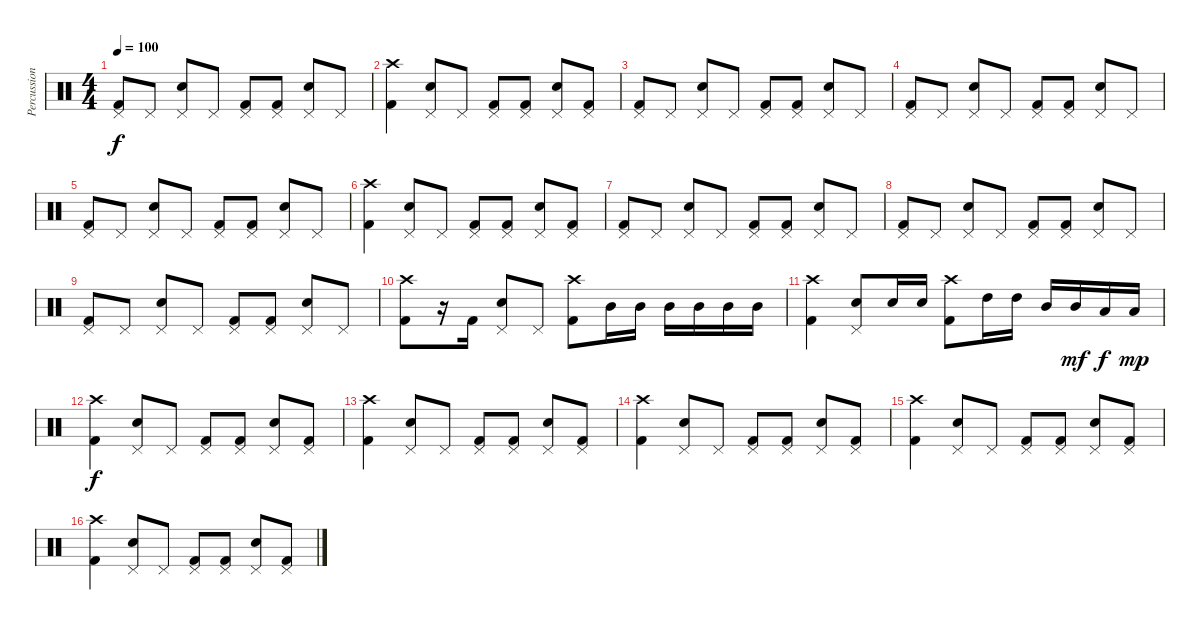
\track ("Percussion" "Percussion") {instrument percussion}
\staff {score}
\articulation defaults
\ts (4 4)
\tempo 100
\clef neutral
\ks c
("Pedal Hi-Hat (hit)" "Kick (hit) 2").8{dy f} "Pedal Hi-Hat (hit)".8 ("Pedal Hi-Hat (hit)" "Snare (hit) 2").8 "Pedal Hi-Hat (hit)".8 ("Pedal Hi-Hat (hit)" "Kick (hit) 2").8 ("Pedal Hi-Hat (hit)" "Kick (hit) 2").8 ("Pedal Hi-Hat (hit)" "Snare (hit) 2").8 "Pedal Hi-Hat (hit)".8 |
("Crash high (hit)" "Kick (hit) 2").4 ("Pedal Hi-Hat (hit)" "Snare (hit) 2").8 "Pedal Hi-Hat (hit)".8 ("Pedal Hi-Hat (hit)" "Kick (hit) 2").8 ("Pedal Hi-Hat (hit)" "Kick (hit) 2").8 ("Pedal Hi-Hat (hit)" "Snare (hit) 2").8 ("Pedal Hi-Hat (hit)" "Kick (hit) 2").8 |
("Pedal Hi-Hat (hit)" "Kick (hit) 2").8 "Pedal Hi-Hat (hit)".8 ("Pedal Hi-Hat (hit)" "Snare (hit) 2").8 "Pedal Hi-Hat (hit)".8 ("Pedal Hi-Hat (hit)" "Kick (hit) 2").8 ("Pedal Hi-Hat (hit)" "Kick (hit) 2").8 ("Pedal Hi-Hat (hit)" "Snare (hit) 2").8 "Pedal Hi-Hat (hit)".8 |
("Pedal Hi-Hat (hit)" "Kick (hit) 2").8 "Pedal Hi-Hat (hit)".8 ("Pedal Hi-Hat (hit)" "Snare (hit) 2").8 "Pedal Hi-Hat (hit)".8 ("Pedal Hi-Hat (hit)" "Kick (hit) 2").8 ("Pedal Hi-Hat (hit)" "Kick (hit) 2").8 ("Pedal Hi-Hat (hit)" "Snare (hit) 2").8 "Pedal Hi-Hat (hit)".8 |
("Pedal Hi-Hat (hit)" "Kick (hit) 2").8 "Pedal Hi-Hat (hit)".8 ("Pedal Hi-Hat (hit)" "Snare (hit) 2").8 "Pedal Hi-Hat (hit)".8 ("Pedal Hi-Hat (hit)" "Kick (hit) 2").8 ("Pedal Hi-Hat (hit)" "Kick (hit) 2").8 ("Pedal Hi-Hat (hit)" "Snare (hit) 2").8 "Pedal Hi-Hat (hit)".8 |
("Crash high (hit)" "Kick (hit) 2").4 ("Pedal Hi-Hat (hit)" "Snare (hit) 2").8 "Pedal Hi-Hat (hit)".8 ("Pedal Hi-Hat (hit)" "Kick (hit) 2").8 ("Pedal Hi-Hat (hit)" "Kick (hit) 2").8 ("Pedal Hi-Hat (hit)" "Snare (hit) 2").8 ("Pedal Hi-Hat (hit)" "Kick (hit) 2").8 |
("Pedal Hi-Hat (hit)" "Kick (hit) 2").8 "Pedal Hi-Hat (hit)".8 ("Pedal Hi-Hat (hit)" "Snare (hit) 2").8 "Pedal Hi-Hat (hit)".8 ("Pedal Hi-Hat (hit)" "Kick (hit) 2").8 ("Pedal Hi-Hat (hit)" "Kick (hit) 2").8 ("Pedal Hi-Hat (hit)" "Snare (hit) 2").8 "Pedal Hi-Hat (hit)".8 |
("Pedal Hi-Hat (hit)" "Kick (hit) 2").8 "Pedal Hi-Hat (hit)".8 ("Pedal Hi-Hat (hit)" "Snare (hit) 2").8 "Pedal Hi-Hat (hit)".8 ("Pedal Hi-Hat (hit)" "Kick (hit) 2").8 ("Pedal Hi-Hat (hit)" "Kick (hit) 2").8 ("Pedal Hi-Hat (hit)" "Snare (hit) 2").8 "Pedal Hi-Hat (hit)".8 |
("Pedal Hi-Hat (hit)" "Kick (hit) 2").8 "Pedal Hi-Hat (hit)".8 ("Pedal Hi-Hat (hit)" "Snare (hit) 2").8 "Pedal Hi-Hat (hit)".8 ("Pedal Hi-Hat (hit)" "Kick (hit) 2").8 ("Pedal Hi-Hat (hit)" "Kick (hit) 2").8 ("Pedal Hi-Hat (hit)" "Snare (hit) 2").8 "Pedal Hi-Hat (hit)".8 |
("Crash high (hit)" "Kick (hit) 2").8 r.16 "Kick (hit) 2".16 ("Pedal Hi-Hat (hit)" "Snare (hit) 2").8 "Pedal Hi-Hat (hit)".8 ("Crash high (hit)" "Kick (hit) 2").8 "Mid Tom (hit)".16 "Mid Tom (hit)".16 "Mid Tom (hit)".16 "Mid Tom (hit)".16 "Mid Tom (hit)".16 "Mid Tom (hit)".16 |
("Crash high (hit)" "Kick (hit) 2").4 ("Pedal Hi-Hat (hit)" "Snare (hit) 2").8 "Snare (hit) 2".16 "Snare (hit) 2".16 ("Crash high (hit)" "Kick (hit) 2").8 "High Tom (hit)".16 "High Tom (hit)".16 "Mid Tom (hit)".16 "Mid Tom (hit)".16{dy mf} "Low Tom (hit)".16{dy f} "Low Tom (hit)".16{dy mp} |
("Crash high (hit)" "Kick (hit) 2").4{dy f} ("Pedal Hi-Hat (hit)" "Snare (hit) 2").8 "Pedal Hi-Hat (hit)".8 ("Pedal Hi-Hat (hit)" "Kick (hit) 2").8 ("Pedal Hi-Hat (hit)" "Kick (hit) 2").8 ("Pedal Hi-Hat (hit)" "Snare (hit) 2").8 ("Pedal Hi-Hat (hit)" "Kick (hit) 2").8 |
("Crash high (hit)" "Kick (hit) 2").4 ("Pedal Hi-Hat (hit)" "Snare (hit) 2").8 "Pedal Hi-Hat (hit)".8 ("Pedal Hi-Hat (hit)" "Kick (hit) 2").8 ("Pedal Hi-Hat (hit)" "Kick (hit) 2").8 ("Pedal Hi-Hat (hit)" "Snare (hit) 2").8 ("Pedal Hi-Hat (hit)" "Kick (hit) 2").8 |
("Crash high (hit)" "Kick (hit) 2").4 ("Pedal Hi-Hat (hit)" "Snare (hit) 2").8 "Pedal Hi-Hat (hit)".8 ("Pedal Hi-Hat (hit)" "Kick (hit) 2").8 ("Pedal Hi-Hat (hit)" "Kick (hit) 2").8 ("Pedal Hi-Hat (hit)" "Snare (hit) 2").8 ("Pedal Hi-Hat (hit)" "Kick (hit) 2").8 |
("Crash high (hit)" "Kick (hit) 2").4 ("Pedal Hi-Hat (hit)" "Snare (hit) 2").8 "Pedal Hi-Hat (hit)".8 ("Pedal Hi-Hat (hit)" "Kick (hit) 2").8 ("Pedal Hi-Hat (hit)" "Kick (hit) 2").8 ("Pedal Hi-Hat (hit)" "Snare (hit) 2").8 ("Pedal Hi-Hat (hit)" "Kick (hit) 2").8 |
("Crash high (hit)" "Kick (hit) 2").4 ("Pedal Hi-Hat (hit)" "Snare (hit) 2").8 "Pedal Hi-Hat (hit)".8 ("Pedal Hi-Hat (hit)" "Kick (hit) 2").8 ("Pedal Hi-Hat (hit)" "Kick (hit) 2").8 ("Pedal Hi-Hat (hit)" "Snare (hit) 2").8 ("Pedal Hi-Hat (hit)" "Kick (hit) 2").8
